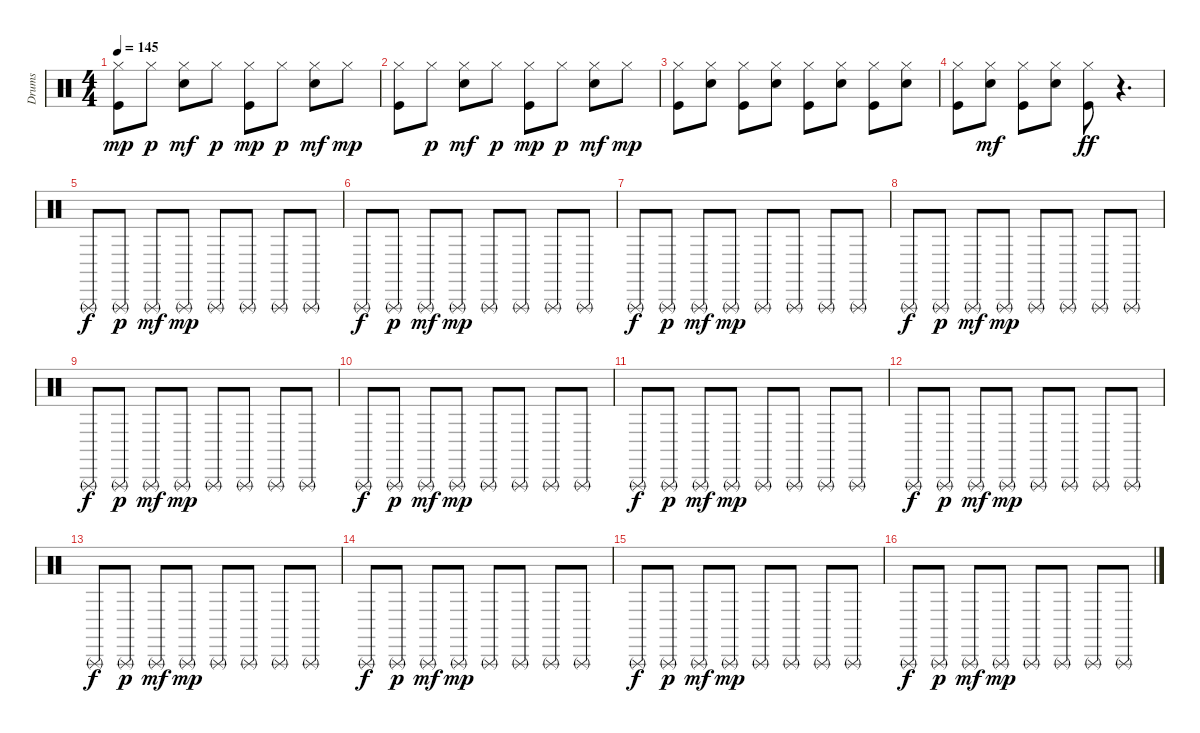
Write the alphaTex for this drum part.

\track ("Drums" "Drums") {instrument percussion}
\staff {score}
\articulation defaults
\ts (4 4)
\tempo 145
\clef neutral
\ks c
("Kick (hit)" "Hi-Hat (closed)").8{dy mp} "Hi-Hat (closed)".8{dy p} ("Snare (hit) 2" "Hi-Hat (closed)").8{dy mf} "Hi-Hat (closed)".8{dy p} ("Kick (hit)" "Hi-Hat (closed)").8{dy mp} "Hi-Hat (closed)".8{dy p} ("Snare (hit) 2" "Hi-Hat (closed)").8{dy mf} "Hi-Hat (closed)".8{dy mp} |
("Kick (hit)" "Hi-Hat (closed)").8 "Hi-Hat (closed)".8{dy p} ("Snare (hit) 2" "Hi-Hat (closed)").8{dy mf} "Hi-Hat (closed)".8{dy p} ("Kick (hit)" "Hi-Hat (closed)").8{dy mp} "Hi-Hat (closed)".8{dy p} ("Snare (hit) 2" "Hi-Hat (closed)").8{dy mf} "Hi-Hat (closed)".8{dy mp} |
("Kick (hit)" "Hi-Hat (closed)").8 ("Snare (hit) 2" "Hi-Hat (closed)").8 ("Kick (hit)" "Hi-Hat (closed)").8 ("Snare (hit) 2" "Hi-Hat (closed)").8 ("Kick (hit)" "Hi-Hat (closed)").8 ("Snare (hit) 2" "Hi-Hat (closed)").8 ("Kick (hit)" "Hi-Hat (closed)").8 ("Snare (hit) 2" "Hi-Hat (closed)").8 |
("Kick (hit)" "Hi-Hat (closed)").8 ("Snare (hit) 2" "Hi-Hat (closed)").8{dy mf} ("Kick (hit)" "Hi-Hat (closed)").8 ("Snare (hit) 2" "Hi-Hat (closed)").8 ("Kick (hit)" "Hi-Hat (closed)").8{dy ff} r.4{d} |
"Triangle (rnute)".8{dy f} "Triangle (rnute)".8{dy p} "Triangle (rnute)".8{dy mf} "Triangle (rnute)".8{dy mp} "Triangle (rnute)".8 "Triangle (rnute)".8 "Triangle (rnute)".8 "Triangle (rnute)".8 |
"Triangle (rnute)".8{dy f} "Triangle (rnute)".8{dy p} "Triangle (rnute)".8{dy mf} "Triangle (rnute)".8{dy mp} "Triangle (rnute)".8 "Triangle (rnute)".8 "Triangle (rnute)".8 "Triangle (rnute)".8 |
"Triangle (rnute)".8{dy f} "Triangle (rnute)".8{dy p} "Triangle (rnute)".8{dy mf} "Triangle (rnute)".8{dy mp} "Triangle (rnute)".8 "Triangle (rnute)".8 "Triangle (rnute)".8 "Triangle (rnute)".8 |
"Triangle (rnute)".8{dy f} "Triangle (rnute)".8{dy p} "Triangle (rnute)".8{dy mf} "Triangle (rnute)".8{dy mp} "Triangle (rnute)".8 "Triangle (rnute)".8 "Triangle (rnute)".8 "Triangle (rnute)".8 |
"Triangle (rnute)".8{dy f} "Triangle (rnute)".8{dy p} "Triangle (rnute)".8{dy mf} "Triangle (rnute)".8{dy mp} "Triangle (rnute)".8 "Triangle (rnute)".8 "Triangle (rnute)".8 "Triangle (rnute)".8 |
"Triangle (rnute)".8{dy f} "Triangle (rnute)".8{dy p} "Triangle (rnute)".8{dy mf} "Triangle (rnute)".8{dy mp} "Triangle (rnute)".8 "Triangle (rnute)".8 "Triangle (rnute)".8 "Triangle (rnute)".8 |
"Triangle (rnute)".8{dy f} "Triangle (rnute)".8{dy p} "Triangle (rnute)".8{dy mf} "Triangle (rnute)".8{dy mp} "Triangle (rnute)".8 "Triangle (rnute)".8 "Triangle (rnute)".8 "Triangle (rnute)".8 |
"Triangle (rnute)".8{dy f} "Triangle (rnute)".8{dy p} "Triangle (rnute)".8{dy mf} "Triangle (rnute)".8{dy mp} "Triangle (rnute)".8 "Triangle (rnute)".8 "Triangle (rnute)".8 "Triangle (rnute)".8 |
"Triangle (rnute)".8{dy f} "Triangle (rnute)".8{dy p} "Triangle (rnute)".8{dy mf} "Triangle (rnute)".8{dy mp} "Triangle (rnute)".8 "Triangle (rnute)".8 "Triangle (rnute)".8 "Triangle (rnute)".8 |
"Triangle (rnute)".8{dy f} "Triangle (rnute)".8{dy p} "Triangle (rnute)".8{dy mf} "Triangle (rnute)".8{dy mp} "Triangle (rnute)".8 "Triangle (rnute)".8 "Triangle (rnute)".8 "Triangle (rnute)".8 |
"Triangle (rnute)".8{dy f} "Triangle (rnute)".8{dy p} "Triangle (rnute)".8{dy mf} "Triangle (rnute)".8{dy mp} "Triangle (rnute)".8 "Triangle (rnute)".8 "Triangle (rnute)".8 "Triangle (rnute)".8 |
"Triangle (rnute)".8{dy f} "Triangle (rnute)".8{dy p} "Triangle (rnute)".8{dy mf} "Triangle (rnute)".8{dy mp} "Triangle (rnute)".8 "Triangle (rnute)".8 "Triangle (rnute)".8 "Triangle (rnute)".8
